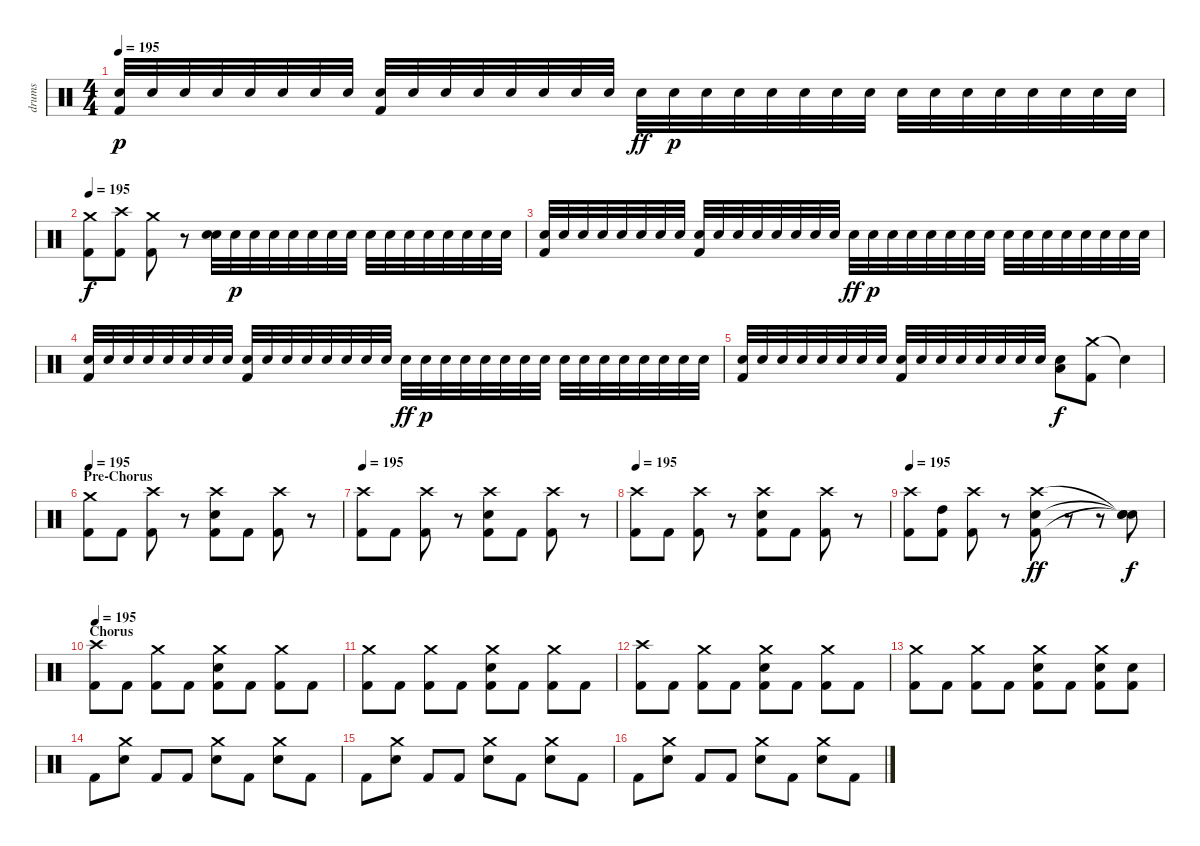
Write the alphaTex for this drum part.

\track ("drums" "drums") {instrument percussion}
\staff {score}
\articulation defaults
\ts (4 4)
\tempo 195
\clef neutral
\ks c
("Electric Snare (hit)" "Kick (hit) 2").32{dy p} "Electric Snare (hit)".32 "Electric Snare (hit)".32 "Electric Snare (hit)".32 "Electric Snare (hit)".32 "Electric Snare (hit)".32 "Electric Snare (hit)".32 "Electric Snare (hit)".32 ("Electric Snare (hit)" "Kick (hit) 2").32 "Electric Snare (hit)".32 "Electric Snare (hit)".32 "Electric Snare (hit)".32 "Electric Snare (hit)".32 "Electric Snare (hit)".32 "Electric Snare (hit)".32 "Electric Snare (hit)".32 "Electric Snare (hit)".32{dy ff} "Electric Snare (hit)".32{dy p} "Electric Snare (hit)".32 "Electric Snare (hit)".32 "Electric Snare (hit)".32 "Electric Snare (hit)".32 "Electric Snare (hit)".32 "Electric Snare (hit)".32 "Electric Snare (hit)".32 "Electric Snare (hit)".32 "Electric Snare (hit)".32 "Electric Snare (hit)".32 "Electric Snare (hit)".32 "Electric Snare (hit)".32 "Electric Snare (hit)".32 "Electric Snare (hit)".32 |
\tempo 195
("Crash medium (hit)" "Kick (hit) 2").8{dy f} ("Crash high (hit)" "Kick (hit) 2").8 ("Crash medium (hit)" "Kick (hit) 2").8 r.8 ("Electric Snare (hit)" "Electric Snare (hit)").32 "Electric Snare (hit)".32{dy p} "Electric Snare (hit)".32 "Electric Snare (hit)".32 "Electric Snare (hit)".32 "Electric Snare (hit)".32 "Electric Snare (hit)".32 "Electric Snare (hit)".32 "Electric Snare (hit)".32 "Electric Snare (hit)".32 "Electric Snare (hit)".32 "Electric Snare (hit)".32 "Electric Snare (hit)".32 "Electric Snare (hit)".32 "Electric Snare (hit)".32 "Electric Snare (hit)".32 |
("Electric Snare (hit)" "Kick (hit) 2").32 "Electric Snare (hit)".32 "Electric Snare (hit)".32 "Electric Snare (hit)".32 "Electric Snare (hit)".32 "Electric Snare (hit)".32 "Electric Snare (hit)".32 "Electric Snare (hit)".32 ("Electric Snare (hit)" "Kick (hit) 2").32 "Electric Snare (hit)".32 "Electric Snare (hit)".32 "Electric Snare (hit)".32 "Electric Snare (hit)".32 "Electric Snare (hit)".32 "Electric Snare (hit)".32 "Electric Snare (hit)".32 "Electric Snare (hit)".32{dy ff} "Electric Snare (hit)".32{dy p} "Electric Snare (hit)".32 "Electric Snare (hit)".32 "Electric Snare (hit)".32 "Electric Snare (hit)".32 "Electric Snare (hit)".32 "Electric Snare (hit)".32 "Electric Snare (hit)".32 "Electric Snare (hit)".32 "Electric Snare (hit)".32 "Electric Snare (hit)".32 "Electric Snare (hit)".32 "Electric Snare (hit)".32 "Electric Snare (hit)".32 "Electric Snare (hit)".32 |
("Electric Snare (hit)" "Kick (hit) 2").32 "Electric Snare (hit)".32 "Electric Snare (hit)".32 "Electric Snare (hit)".32 "Electric Snare (hit)".32 "Electric Snare (hit)".32 "Electric Snare (hit)".32 "Electric Snare (hit)".32 ("Electric Snare (hit)" "Kick (hit) 2").32 "Electric Snare (hit)".32 "Electric Snare (hit)".32 "Electric Snare (hit)".32 "Electric Snare (hit)".32 "Electric Snare (hit)".32 "Electric Snare (hit)".32 "Electric Snare (hit)".32 "Electric Snare (hit)".32{dy ff} "Electric Snare (hit)".32{dy p} "Electric Snare (hit)".32 "Electric Snare (hit)".32 "Electric Snare (hit)".32 "Electric Snare (hit)".32 "Electric Snare (hit)".32 "Electric Snare (hit)".32 "Electric Snare (hit)".32 "Electric Snare (hit)".32 "Electric Snare (hit)".32 "Electric Snare (hit)".32 "Electric Snare (hit)".32 "Electric Snare (hit)".32 "Electric Snare (hit)".32 "Electric Snare (hit)".32 |
("Electric Snare (hit)" "Kick (hit) 2").32 "Electric Snare (hit)".32 "Electric Snare (hit)".32 "Electric Snare (hit)".32 "Electric Snare (hit)".32 "Electric Snare (hit)".32 "Electric Snare (hit)".32 "Electric Snare (hit)".32 ("Electric Snare (hit)" "Kick (hit) 2").32 "Electric Snare (hit)".32 "Electric Snare (hit)".32 "Electric Snare (hit)".32 "Electric Snare (hit)".32 "Electric Snare (hit)".32 "Electric Snare (hit)".32 "Electric Snare (hit)".32 ("Electric Snare (hit)" "Low Tom (hit)").8{dy f} ("Crash medium (hit)" "Kick (hit) 2").8 "Snare (hit)"{t}.4 |
\section ("" "Pre-Chorus")
\tempo 195
("Crash medium (hit)" "Kick (hit) 2").8 "Kick (hit) 2".8 ("Crash high (hit)" "Kick (hit) 2").8 r.8 ("Crash high (hit)" "Electric Snare (hit)" "Kick (hit) 2").8 "Kick (hit) 2".8 ("Crash high (hit)" "Kick (hit) 2").8 r.8 |
\tempo 195
("Crash high (hit)" "Kick (hit) 2").8 "Kick (hit) 2".8 ("Crash high (hit)" "Kick (hit) 2").8 r.8 ("Crash high (hit)" "Electric Snare (hit)" "Kick (hit) 2").8 "Kick (hit) 2".8 ("Crash high (hit)" "Kick (hit) 2").8 r.8 |
\tempo 195
("Crash high (hit)" "Kick (hit) 2").8 "Kick (hit) 2".8 ("Crash high (hit)" "Kick (hit) 2").8 r.8 ("Crash high (hit)" "Electric Snare (hit)" "Kick (hit) 2").8 "Kick (hit) 2".8 ("Crash high (hit)" "Kick (hit) 2").8 r.8 |
\tempo 195
("Crash high (hit)" "Kick (hit) 2").8 ("High Tom (hit)" "Kick (hit) 2").8 ("Crash high (hit)" "Kick (hit) 2").8 r.8 ("Crash high (hit)" "Electric Snare (hit)" "Kick (hit) 2").8{dy ff} r.8 r.8 ("Snare (hit)"{t} "Snare (hit)"{t} "Snare (hit)"{t}).8{dy f} |
\section ("" "Chorus")
\tempo 195
("Crash high (hit)" "Kick (hit) 2").8 "Kick (hit) 2".8 ("Crash medium (hit)" "Kick (hit) 2").8 "Kick (hit) 2".8 ("Crash medium (hit)" "Electric Snare (hit)" "Kick (hit) 2").8 "Kick (hit) 2".8 ("Crash medium (hit)" "Kick (hit) 2").8 "Kick (hit) 2".8 |
("Crash medium (hit)" "Kick (hit) 2").8 "Kick (hit) 2".8 ("Crash medium (hit)" "Kick (hit) 2").8 "Kick (hit) 2".8 ("Crash medium (hit)" "Electric Snare (hit)" "Kick (hit) 2").8 "Kick (hit) 2".8 ("Crash medium (hit)" "Kick (hit) 2").8 "Kick (hit) 2".8 |
("Crash high (hit)" "Kick (hit) 2").8 "Kick (hit) 2".8 ("Crash medium (hit)" "Kick (hit) 2").8 "Kick (hit) 2".8 ("Crash medium (hit)" "Electric Snare (hit)" "Kick (hit) 2").8 "Kick (hit) 2".8 ("Crash medium (hit)" "Kick (hit) 2").8 "Kick (hit) 2".8 |
("Crash medium (hit)" "Kick (hit) 2").8 "Kick (hit) 2".8 ("Crash medium (hit)" "Kick (hit) 2").8 "Kick (hit) 2".8 ("Crash medium (hit)" "Electric Snare (hit)" "Kick (hit) 2").8 "Kick (hit) 2".8 ("Crash medium (hit)" "Electric Snare (hit)" "Kick (hit) 2").8 ("Electric Snare (hit)" "Kick (hit) 2").8 |
"Kick (hit) 2".8 ("Crash medium (hit)" "Electric Snare (hit)").8 "Kick (hit) 2".8 "Kick (hit) 2".8 ("Crash medium (hit)" "Electric Snare (hit)").8 "Kick (hit) 2".8 ("Crash medium (hit)" "Electric Snare (hit)").8 "Kick (hit) 2".8 |
"Kick (hit) 2".8 ("Crash medium (hit)" "Electric Snare (hit)").8 "Kick (hit) 2".8 "Kick (hit) 2".8 ("Crash medium (hit)" "Electric Snare (hit)").8 "Kick (hit) 2".8 ("Crash medium (hit)" "Electric Snare (hit)").8 "Kick (hit) 2".8 |
"Kick (hit) 2".8 ("Crash medium (hit)" "Electric Snare (hit)").8 "Kick (hit) 2".8 "Kick (hit) 2".8 ("Crash medium (hit)" "Electric Snare (hit)").8 "Kick (hit) 2".8 ("Crash medium (hit)" "Electric Snare (hit)").8 "Kick (hit) 2".8
